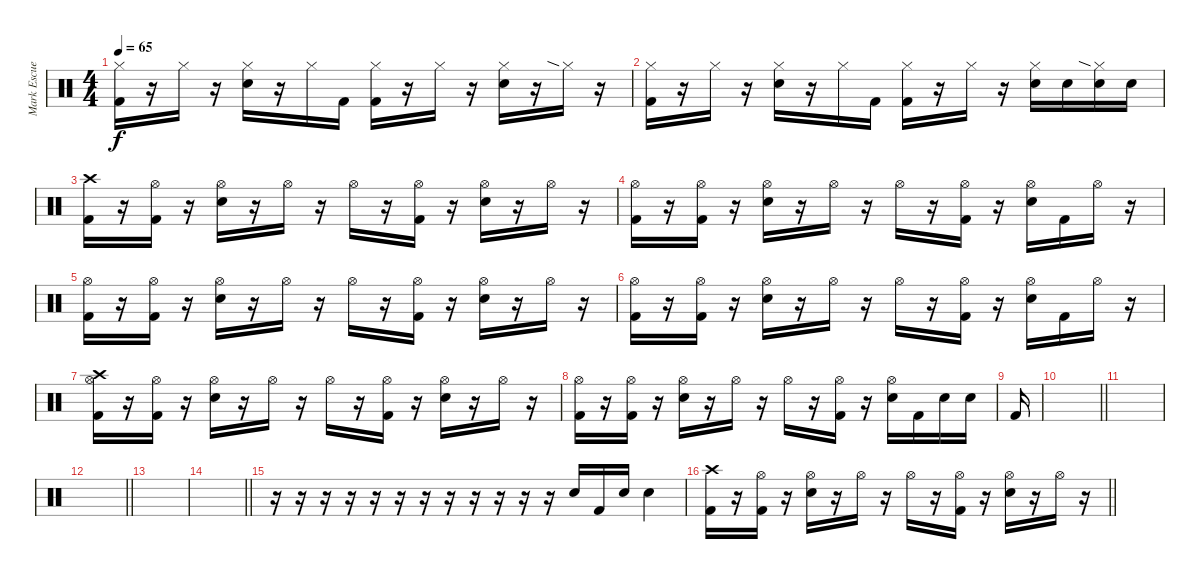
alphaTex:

\track ("Mark Escueta" "Mark Escue") {instrument percussion}
\staff {score}
\articulation defaults
\ts (4 4)
\tempo 65
\clef neutral
\ks c
("Hi-Hat (closed)" "Kick (hit) 2").16{dy f} r.16 "Hi-Hat (closed)".16 r.16 ("Hi-Hat (closed)" "Electric Snare (hit)").16 r.16 "Hi-Hat (closed)".16 "Kick (hit) 2".16 ("Hi-Hat (closed)" "Kick (hit) 2").16 r.16 "Hi-Hat (closed)".16 r.16 ("Hi-Hat (closed)" "Electric Snare (hit)").16 r.16 "Hi-Hat (closed)"{sia}.16 r.16 |
("Hi-Hat (closed)" "Kick (hit) 2").16 r.16 "Hi-Hat (closed)".16 r.16 ("Hi-Hat (closed)" "Electric Snare (hit)").16 r.16 "Hi-Hat (closed)".16 "Kick (hit) 2".16 ("Hi-Hat (closed)" "Kick (hit) 2").16 r.16 "Hi-Hat (closed)".16 r.16 ("Hi-Hat (closed)" "Electric Snare (hit)").16 "Electric Snare (hit)".16 ("Hi-Hat (closed)"{sia} "Electric Snare (hit)").16 "Electric Snare (hit)".16 |
("Crash high (hit)" "Kick (hit) 2").16 r.16 ("Hi-Hat (open)" "Kick (hit) 2").16 r.16 ("Hi-Hat (open)" "Electric Snare (hit)").16 r.16 "Hi-Hat (open)".16 r.16 "Hi-Hat (open)".16 r.16 ("Hi-Hat (open)" "Kick (hit) 2").16 r.16 ("Hi-Hat (open)" "Electric Snare (hit)").16 r.16 "Hi-Hat (open)".16 r.16 |
("Hi-Hat (open)" "Kick (hit) 2").16 r.16 ("Hi-Hat (open)" "Kick (hit) 2").16 r.16 ("Hi-Hat (open)" "Electric Snare (hit)").16 r.16 "Hi-Hat (open)".16 r.16 "Hi-Hat (open)".16 r.16 ("Hi-Hat (open)" "Kick (hit) 2").16 r.16 ("Hi-Hat (open)" "Electric Snare (hit)").16 "Kick (hit) 2".16 "Hi-Hat (open)".16 r.16 |
("Hi-Hat (open)" "Kick (hit) 2").16 r.16 ("Hi-Hat (open)" "Kick (hit) 2").16 r.16 ("Hi-Hat (open)" "Electric Snare (hit)").16 r.16 "Hi-Hat (open)".16 r.16 "Hi-Hat (open)".16 r.16 ("Hi-Hat (open)" "Kick (hit) 2").16 r.16 ("Hi-Hat (open)" "Electric Snare (hit)").16 r.16 "Hi-Hat (open)".16 r.16 |
("Hi-Hat (open)" "Kick (hit) 2").16 r.16 ("Hi-Hat (open)" "Kick (hit) 2").16 r.16 ("Hi-Hat (open)" "Electric Snare (hit)").16 r.16 "Hi-Hat (open)".16 r.16 "Hi-Hat (open)".16 r.16 ("Hi-Hat (open)" "Kick (hit) 2").16 r.16 ("Hi-Hat (open)" "Electric Snare (hit)").16 "Kick (hit) 2".16 "Hi-Hat (open)".16 r.16 |
("Crash high (hit)" "Hi-Hat (open)" "Kick (hit) 2").16 r.16 ("Hi-Hat (open)" "Kick (hit) 2").16 r.16 ("Hi-Hat (open)" "Electric Snare (hit)").16 r.16 "Hi-Hat (open)".16 r.16 "Hi-Hat (open)".16 r.16 ("Hi-Hat (open)" "Kick (hit) 2").16 r.16 ("Hi-Hat (open)" "Electric Snare (hit)").16 r.16 "Hi-Hat (open)".16 r.16 |
("Hi-Hat (open)" "Kick (hit) 2").16 r.16 ("Hi-Hat (open)" "Kick (hit) 2").16 r.16 ("Hi-Hat (open)" "Electric Snare (hit)").16 r.16 "Hi-Hat (open)".16 r.16 "Hi-Hat (open)".16 r.16 ("Hi-Hat (open)" "Kick (hit) 2").16 r.16 ("Hi-Hat (open)" "Electric Snare (hit)").16 "Kick (hit) 2".16 "Electric Snare (hit)".16 "Electric Snare (hit)".16 |
"Kick (hit) 2".16 |
\barLineRight lightlight
|
|
\barLineRight lightlight
|
|
\barLineRight lightlight
|
r.16 r.16 r.16 r.16 r.16 r.16 r.16 r.16 r.16 r.16 r.16 r.16 "Electric Snare (hit)".16 "Kick (hit) 2".16 "Electric Snare (hit)".16 "Electric Snare (hit)".4 |
\barLineRight lightlight
("Crash high (hit)" "Kick (hit) 2").16 r.16 ("Hi-Hat (open)" "Kick (hit) 2").16 r.16 ("Hi-Hat (open)" "Electric Snare (hit)").16 r.16 "Hi-Hat (open)".16 r.16 "Hi-Hat (open)".16 r.16 ("Hi-Hat (open)" "Kick (hit) 2").16 r.16 ("Hi-Hat (open)" "Electric Snare (hit)").16 r.16 "Hi-Hat (open)".16 r.16
